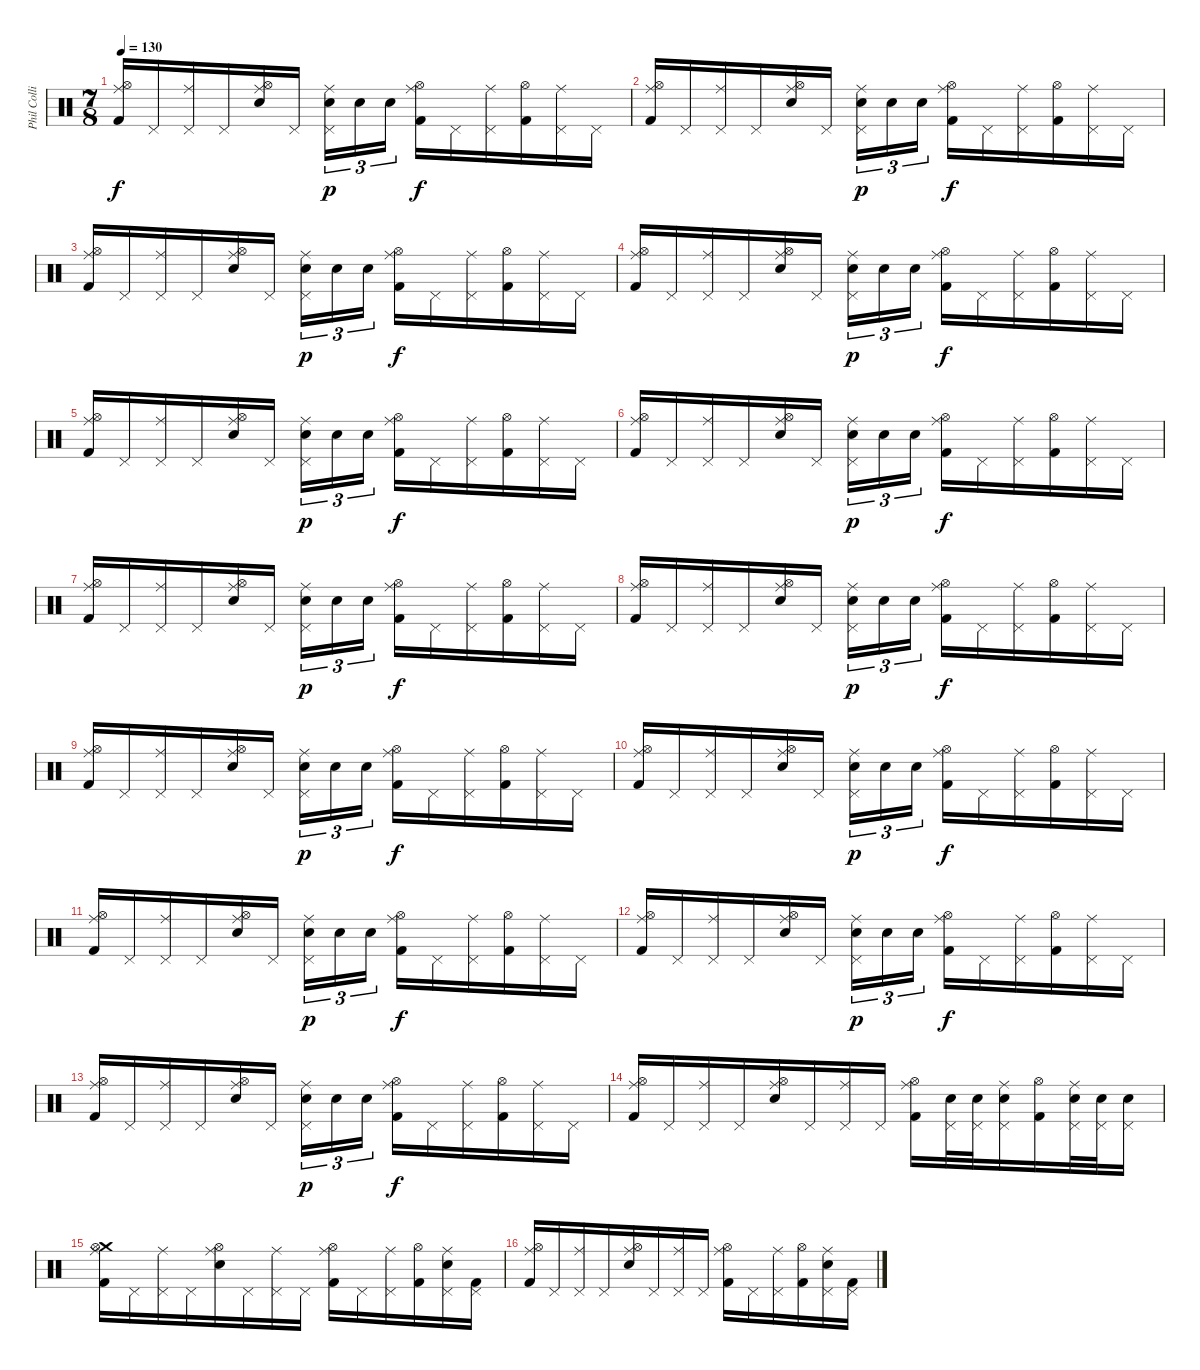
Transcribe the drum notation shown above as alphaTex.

\track ("Phil Collins (drums)" "Phil Colli") {instrument percussion}
\staff {score}
\articulation defaults
\ts (7 8)
\tempo 130
\clef neutral
\ks c
("Ride (middle)" "Hi-Hat (open)" "Kick (hit) 2").16{dy f} "Pedal Hi-Hat (hit)".16 ("Ride (middle)" "Pedal Hi-Hat (hit)").16 "Pedal Hi-Hat (hit)".16 ("Ride (middle)" "Hi-Hat (open)" "Electric Snare (hit)").16 "Pedal Hi-Hat (hit)".16 ("Ride (middle)" "Pedal Hi-Hat (hit)" "Electric Snare (hit)").16{tu (3 2) dy p} "Electric Snare (hit)".16{tu (3 2)} "Electric Snare (hit)".16{tu (3 2)} ("Ride (middle)" "Hi-Hat (open)" "Kick (hit) 2").16{dy f} "Pedal Hi-Hat (hit)".16 ("Ride (middle)" "Pedal Hi-Hat (hit)").16 ("Hi-Hat (open)" "Kick (hit) 2").16 ("Ride (middle)" "Pedal Hi-Hat (hit)").16 "Pedal Hi-Hat (hit)".16 |
("Ride (middle)" "Hi-Hat (open)" "Kick (hit) 2").16 "Pedal Hi-Hat (hit)".16 ("Ride (middle)" "Pedal Hi-Hat (hit)").16 "Pedal Hi-Hat (hit)".16 ("Ride (middle)" "Hi-Hat (open)" "Electric Snare (hit)").16 "Pedal Hi-Hat (hit)".16 ("Ride (middle)" "Pedal Hi-Hat (hit)" "Electric Snare (hit)").16{tu (3 2) dy p} "Electric Snare (hit)".16{tu (3 2)} "Electric Snare (hit)".16{tu (3 2)} ("Ride (middle)" "Hi-Hat (open)" "Kick (hit) 2").16{dy f} "Pedal Hi-Hat (hit)".16 ("Ride (middle)" "Pedal Hi-Hat (hit)").16 ("Hi-Hat (open)" "Kick (hit) 2").16 ("Ride (middle)" "Pedal Hi-Hat (hit)").16 "Pedal Hi-Hat (hit)".16 |
("Ride (middle)" "Hi-Hat (open)" "Kick (hit) 2").16 "Pedal Hi-Hat (hit)".16 ("Ride (middle)" "Pedal Hi-Hat (hit)").16 "Pedal Hi-Hat (hit)".16 ("Ride (middle)" "Hi-Hat (open)" "Electric Snare (hit)").16 "Pedal Hi-Hat (hit)".16 ("Ride (middle)" "Pedal Hi-Hat (hit)" "Electric Snare (hit)").16{tu (3 2) dy p} "Electric Snare (hit)".16{tu (3 2)} "Electric Snare (hit)".16{tu (3 2)} ("Ride (middle)" "Hi-Hat (open)" "Kick (hit) 2").16{dy f} "Pedal Hi-Hat (hit)".16 ("Ride (middle)" "Pedal Hi-Hat (hit)").16 ("Hi-Hat (open)" "Kick (hit) 2").16 ("Ride (middle)" "Pedal Hi-Hat (hit)").16 "Pedal Hi-Hat (hit)".16 |
("Ride (middle)" "Hi-Hat (open)" "Kick (hit) 2").16 "Pedal Hi-Hat (hit)".16 ("Ride (middle)" "Pedal Hi-Hat (hit)").16 "Pedal Hi-Hat (hit)".16 ("Ride (middle)" "Hi-Hat (open)" "Electric Snare (hit)").16 "Pedal Hi-Hat (hit)".16 ("Ride (middle)" "Pedal Hi-Hat (hit)" "Electric Snare (hit)").16{tu (3 2) dy p} "Electric Snare (hit)".16{tu (3 2)} "Electric Snare (hit)".16{tu (3 2)} ("Ride (middle)" "Hi-Hat (open)" "Kick (hit) 2").16{dy f} "Pedal Hi-Hat (hit)".16 ("Ride (middle)" "Pedal Hi-Hat (hit)").16 ("Hi-Hat (open)" "Kick (hit) 2").16 ("Ride (middle)" "Pedal Hi-Hat (hit)").16 "Pedal Hi-Hat (hit)".16 |
("Ride (middle)" "Hi-Hat (open)" "Kick (hit) 2").16 "Pedal Hi-Hat (hit)".16 ("Ride (middle)" "Pedal Hi-Hat (hit)").16 "Pedal Hi-Hat (hit)".16 ("Ride (middle)" "Hi-Hat (open)" "Electric Snare (hit)").16 "Pedal Hi-Hat (hit)".16 ("Ride (middle)" "Pedal Hi-Hat (hit)" "Electric Snare (hit)").16{tu (3 2) dy p} "Electric Snare (hit)".16{tu (3 2)} "Electric Snare (hit)".16{tu (3 2)} ("Ride (middle)" "Hi-Hat (open)" "Kick (hit) 2").16{dy f} "Pedal Hi-Hat (hit)".16 ("Ride (middle)" "Pedal Hi-Hat (hit)").16 ("Hi-Hat (open)" "Kick (hit) 2").16 ("Ride (middle)" "Pedal Hi-Hat (hit)").16 "Pedal Hi-Hat (hit)".16 |
("Ride (middle)" "Hi-Hat (open)" "Kick (hit) 2").16 "Pedal Hi-Hat (hit)".16 ("Ride (middle)" "Pedal Hi-Hat (hit)").16 "Pedal Hi-Hat (hit)".16 ("Ride (middle)" "Hi-Hat (open)" "Electric Snare (hit)").16 "Pedal Hi-Hat (hit)".16 ("Ride (middle)" "Pedal Hi-Hat (hit)" "Electric Snare (hit)").16{tu (3 2) dy p} "Electric Snare (hit)".16{tu (3 2)} "Electric Snare (hit)".16{tu (3 2)} ("Ride (middle)" "Hi-Hat (open)" "Kick (hit) 2").16{dy f} "Pedal Hi-Hat (hit)".16 ("Ride (middle)" "Pedal Hi-Hat (hit)").16 ("Hi-Hat (open)" "Kick (hit) 2").16 ("Ride (middle)" "Pedal Hi-Hat (hit)").16 "Pedal Hi-Hat (hit)".16 |
("Ride (middle)" "Hi-Hat (open)" "Kick (hit) 2").16 "Pedal Hi-Hat (hit)".16 ("Ride (middle)" "Pedal Hi-Hat (hit)").16 "Pedal Hi-Hat (hit)".16 ("Ride (middle)" "Hi-Hat (open)" "Electric Snare (hit)").16 "Pedal Hi-Hat (hit)".16 ("Ride (middle)" "Pedal Hi-Hat (hit)" "Electric Snare (hit)").16{tu (3 2) dy p} "Electric Snare (hit)".16{tu (3 2)} "Electric Snare (hit)".16{tu (3 2)} ("Ride (middle)" "Hi-Hat (open)" "Kick (hit) 2").16{dy f} "Pedal Hi-Hat (hit)".16 ("Ride (middle)" "Pedal Hi-Hat (hit)").16 ("Hi-Hat (open)" "Kick (hit) 2").16 ("Ride (middle)" "Pedal Hi-Hat (hit)").16 "Pedal Hi-Hat (hit)".16 |
("Ride (middle)" "Hi-Hat (open)" "Kick (hit) 2").16 "Pedal Hi-Hat (hit)".16 ("Ride (middle)" "Pedal Hi-Hat (hit)").16 "Pedal Hi-Hat (hit)".16 ("Ride (middle)" "Hi-Hat (open)" "Electric Snare (hit)").16 "Pedal Hi-Hat (hit)".16 ("Ride (middle)" "Pedal Hi-Hat (hit)" "Electric Snare (hit)").16{tu (3 2) dy p} "Electric Snare (hit)".16{tu (3 2)} "Electric Snare (hit)".16{tu (3 2)} ("Ride (middle)" "Hi-Hat (open)" "Kick (hit) 2").16{dy f} "Pedal Hi-Hat (hit)".16 ("Ride (middle)" "Pedal Hi-Hat (hit)").16 ("Hi-Hat (open)" "Kick (hit) 2").16 ("Ride (middle)" "Pedal Hi-Hat (hit)").16 "Pedal Hi-Hat (hit)".16 |
("Ride (middle)" "Hi-Hat (open)" "Kick (hit) 2").16 "Pedal Hi-Hat (hit)".16 ("Ride (middle)" "Pedal Hi-Hat (hit)").16 "Pedal Hi-Hat (hit)".16 ("Ride (middle)" "Hi-Hat (open)" "Electric Snare (hit)").16 "Pedal Hi-Hat (hit)".16 ("Ride (middle)" "Pedal Hi-Hat (hit)" "Electric Snare (hit)").16{tu (3 2) dy p} "Electric Snare (hit)".16{tu (3 2)} "Electric Snare (hit)".16{tu (3 2)} ("Ride (middle)" "Hi-Hat (open)" "Kick (hit) 2").16{dy f} "Pedal Hi-Hat (hit)".16 ("Ride (middle)" "Pedal Hi-Hat (hit)").16 ("Hi-Hat (open)" "Kick (hit) 2").16 ("Ride (middle)" "Pedal Hi-Hat (hit)").16 "Pedal Hi-Hat (hit)".16 |
("Ride (middle)" "Hi-Hat (open)" "Kick (hit) 2").16 "Pedal Hi-Hat (hit)".16 ("Ride (middle)" "Pedal Hi-Hat (hit)").16 "Pedal Hi-Hat (hit)".16 ("Ride (middle)" "Hi-Hat (open)" "Electric Snare (hit)").16 "Pedal Hi-Hat (hit)".16 ("Ride (middle)" "Pedal Hi-Hat (hit)" "Electric Snare (hit)").16{tu (3 2) dy p} "Electric Snare (hit)".16{tu (3 2)} "Electric Snare (hit)".16{tu (3 2)} ("Ride (middle)" "Hi-Hat (open)" "Kick (hit) 2").16{dy f} "Pedal Hi-Hat (hit)".16 ("Ride (middle)" "Pedal Hi-Hat (hit)").16 ("Hi-Hat (open)" "Kick (hit) 2").16 ("Ride (middle)" "Pedal Hi-Hat (hit)").16 "Pedal Hi-Hat (hit)".16 |
("Ride (middle)" "Hi-Hat (open)" "Kick (hit) 2").16 "Pedal Hi-Hat (hit)".16 ("Ride (middle)" "Pedal Hi-Hat (hit)").16 "Pedal Hi-Hat (hit)".16 ("Ride (middle)" "Hi-Hat (open)" "Electric Snare (hit)").16 "Pedal Hi-Hat (hit)".16 ("Ride (middle)" "Pedal Hi-Hat (hit)" "Electric Snare (hit)").16{tu (3 2) dy p} "Electric Snare (hit)".16{tu (3 2)} "Electric Snare (hit)".16{tu (3 2)} ("Ride (middle)" "Hi-Hat (open)" "Kick (hit) 2").16{dy f} "Pedal Hi-Hat (hit)".16 ("Ride (middle)" "Pedal Hi-Hat (hit)").16 ("Hi-Hat (open)" "Kick (hit) 2").16 ("Ride (middle)" "Pedal Hi-Hat (hit)").16 "Pedal Hi-Hat (hit)".16 |
("Ride (middle)" "Hi-Hat (open)" "Kick (hit) 2").16 "Pedal Hi-Hat (hit)".16 ("Ride (middle)" "Pedal Hi-Hat (hit)").16 "Pedal Hi-Hat (hit)".16 ("Ride (middle)" "Hi-Hat (open)" "Electric Snare (hit)").16 "Pedal Hi-Hat (hit)".16 ("Ride (middle)" "Pedal Hi-Hat (hit)" "Electric Snare (hit)").16{tu (3 2) dy p} "Electric Snare (hit)".16{tu (3 2)} "Electric Snare (hit)".16{tu (3 2)} ("Ride (middle)" "Hi-Hat (open)" "Kick (hit) 2").16{dy f} "Pedal Hi-Hat (hit)".16 ("Ride (middle)" "Pedal Hi-Hat (hit)").16 ("Hi-Hat (open)" "Kick (hit) 2").16 ("Ride (middle)" "Pedal Hi-Hat (hit)").16 "Pedal Hi-Hat (hit)".16 |
("Ride (middle)" "Hi-Hat (open)" "Kick (hit) 2").16 "Pedal Hi-Hat (hit)".16 ("Ride (middle)" "Pedal Hi-Hat (hit)").16 "Pedal Hi-Hat (hit)".16 ("Ride (middle)" "Hi-Hat (open)" "Electric Snare (hit)").16 "Pedal Hi-Hat (hit)".16 ("Ride (middle)" "Pedal Hi-Hat (hit)" "Electric Snare (hit)").16{tu (3 2) dy p} "Electric Snare (hit)".16{tu (3 2)} "Electric Snare (hit)".16{tu (3 2)} ("Ride (middle)" "Hi-Hat (open)" "Kick (hit) 2").16{dy f} "Pedal Hi-Hat (hit)".16 ("Ride (middle)" "Pedal Hi-Hat (hit)").16 ("Hi-Hat (open)" "Kick (hit) 2").16 ("Ride (middle)" "Pedal Hi-Hat (hit)").16 "Pedal Hi-Hat (hit)".16 |
("Ride (middle)" "Hi-Hat (open)" "Kick (hit) 2").16 "Pedal Hi-Hat (hit)".16 ("Ride (middle)" "Pedal Hi-Hat (hit)").16 "Pedal Hi-Hat (hit)".16 ("Ride (middle)" "Hi-Hat (open)" "Electric Snare (hit)").16 "Pedal Hi-Hat (hit)".16 ("Ride (middle)" "Pedal Hi-Hat (hit)").16 "Pedal Hi-Hat (hit)".16 ("Ride (middle)" "Hi-Hat (open)" "Kick (hit) 2").16 ("Pedal Hi-Hat (hit)" "Electric Snare (hit)").32 ("Pedal Hi-Hat (hit)" "Electric Snare (hit)").32 ("Ride (middle)" "Pedal Hi-Hat (hit)" "Electric Snare (hit)").16 ("Hi-Hat (open)" "Kick (hit) 2").16 ("Ride (middle)" "Pedal Hi-Hat (hit)" "Electric Snare (hit)").32 ("Pedal Hi-Hat (hit)" "Electric Snare (hit)").32 ("Pedal Hi-Hat (hit)" "Electric Snare (hit)").16 |
("Crash medium (hit)" "Ride (middle)" "Hi-Hat (open)" "Kick (hit) 2").16 "Pedal Hi-Hat (hit)".16 ("Ride (middle)" "Pedal Hi-Hat (hit)").16 "Pedal Hi-Hat (hit)".16 ("Ride (middle)" "Hi-Hat (open)" "Electric Snare (hit)").16 "Pedal Hi-Hat (hit)".16 ("Ride (middle)" "Pedal Hi-Hat (hit)").16 "Pedal Hi-Hat (hit)".16 ("Ride (middle)" "Hi-Hat (open)" "Kick (hit) 2").16 "Pedal Hi-Hat (hit)".16 ("Ride (middle)" "Pedal Hi-Hat (hit)").16 ("Hi-Hat (open)" "Kick (hit) 2").16 ("Ride (middle)" "Pedal Hi-Hat (hit)" "Electric Snare (hit)").16 ("Pedal Hi-Hat (hit)" "Kick (hit) 2").16 |
("Ride (middle)" "Hi-Hat (open)" "Kick (hit) 2").16 "Pedal Hi-Hat (hit)".16 ("Ride (middle)" "Pedal Hi-Hat (hit)").16 "Pedal Hi-Hat (hit)".16 ("Ride (middle)" "Hi-Hat (open)" "Electric Snare (hit)").16 "Pedal Hi-Hat (hit)".16 ("Ride (middle)" "Pedal Hi-Hat (hit)").16 "Pedal Hi-Hat (hit)".16 ("Ride (middle)" "Hi-Hat (open)" "Kick (hit) 2").16 "Pedal Hi-Hat (hit)".16 ("Ride (middle)" "Pedal Hi-Hat (hit)").16 ("Hi-Hat (open)" "Kick (hit) 2").16 ("Ride (middle)" "Pedal Hi-Hat (hit)" "Electric Snare (hit)").16 ("Pedal Hi-Hat (hit)" "Kick (hit) 2").16
